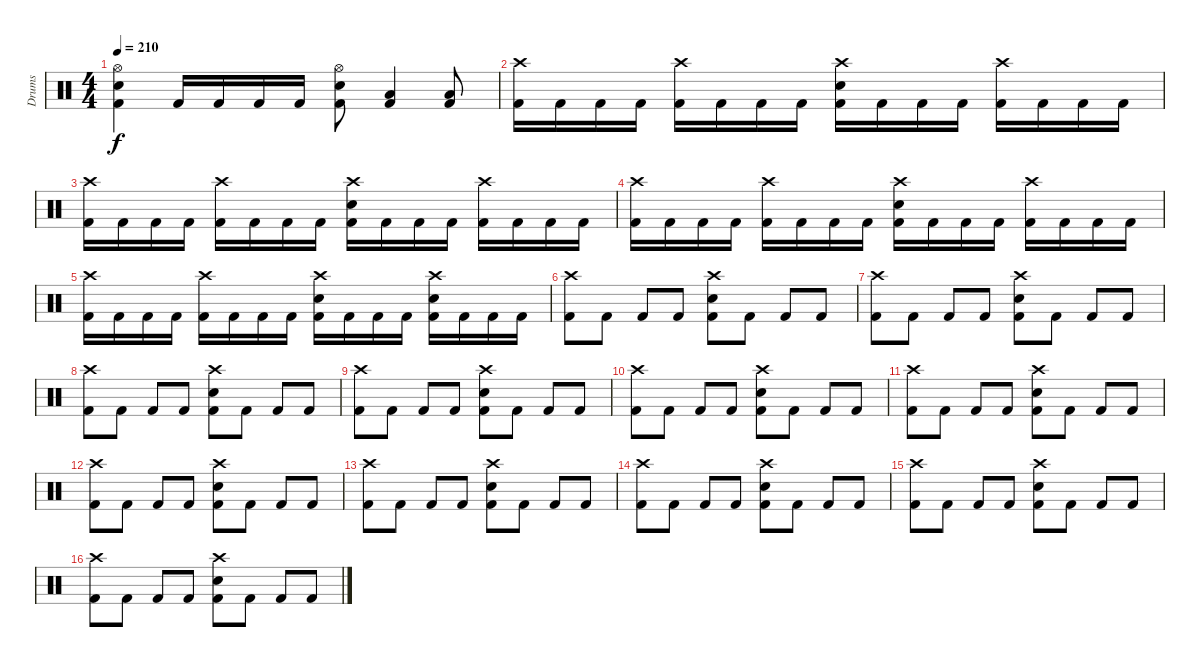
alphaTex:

\track ("Drums" "Drums") {instrument percussion}
\staff {score}
\articulation defaults
\ts (4 4)
\tempo 210
\clef neutral
\ks c
("Hi-Hat (open)" "Electric Snare (hit)" "Kick (hit) 2").4{dy f} "Kick (hit) 2".16 "Kick (hit) 2".16 "Kick (hit) 2".16 "Kick (hit) 2".16 ("Hi-Hat (open)" "Electric Snare (hit)" "Kick (hit) 2").8 ("Low Floor Tom (hit)" "Kick (hit) 2").4 ("Low Floor Tom (hit)" "Kick (hit) 2").8 |
("Crash high (hit)" "Kick (hit) 2").16 "Kick (hit) 2".16 "Kick (hit) 2".16 "Kick (hit) 2".16 ("Crash high (hit)" "Kick (hit) 2").16 "Kick (hit) 2".16 "Kick (hit) 2".16 "Kick (hit) 2".16 ("Crash high (hit)" "Electric Snare (hit)" "Kick (hit) 2").16 "Kick (hit) 2".16 "Kick (hit) 2".16 "Kick (hit) 2".16 ("Crash high (hit)" "Kick (hit) 2").16 "Kick (hit) 2".16 "Kick (hit) 2".16 "Kick (hit) 2".16 |
("Crash high (hit)" "Kick (hit) 2").16 "Kick (hit) 2".16 "Kick (hit) 2".16 "Kick (hit) 2".16 ("Crash high (hit)" "Kick (hit) 2").16 "Kick (hit) 2".16 "Kick (hit) 2".16 "Kick (hit) 2".16 ("Crash high (hit)" "Electric Snare (hit)" "Kick (hit) 2").16 "Kick (hit) 2".16 "Kick (hit) 2".16 "Kick (hit) 2".16 ("Crash high (hit)" "Kick (hit) 2").16 "Kick (hit) 2".16 "Kick (hit) 2".16 "Kick (hit) 2".16 |
("Crash high (hit)" "Kick (hit) 2").16 "Kick (hit) 2".16 "Kick (hit) 2".16 "Kick (hit) 2".16 ("Crash high (hit)" "Kick (hit) 2").16 "Kick (hit) 2".16 "Kick (hit) 2".16 "Kick (hit) 2".16 ("Crash high (hit)" "Electric Snare (hit)" "Kick (hit) 2").16 "Kick (hit) 2".16 "Kick (hit) 2".16 "Kick (hit) 2".16 ("Crash high (hit)" "Kick (hit) 2").16 "Kick (hit) 2".16 "Kick (hit) 2".16 "Kick (hit) 2".16 |
("Crash high (hit)" "Kick (hit) 2").16 "Kick (hit) 2".16 "Kick (hit) 2".16 "Kick (hit) 2".16 ("Crash high (hit)" "Kick (hit) 2").16 "Kick (hit) 2".16 "Kick (hit) 2".16 "Kick (hit) 2".16 ("Crash high (hit)" "Electric Snare (hit)" "Kick (hit) 2").16 "Kick (hit) 2".16 "Kick (hit) 2".16 "Kick (hit) 2".16 ("Crash high (hit)" "Electric Snare (hit)" "Kick (hit) 2").16 "Kick (hit) 2".16 "Kick (hit) 2".16 "Kick (hit) 2".16 |
("Crash high (hit)" "Kick (hit) 2").8 "Kick (hit) 2".8 "Kick (hit) 2".8 "Kick (hit) 2".8 ("Crash high (hit)" "Electric Snare (hit)" "Kick (hit) 2").8 "Kick (hit) 2".8 "Kick (hit) 2".8 "Kick (hit) 2".8 |
("Crash high (hit)" "Kick (hit) 2").8 "Kick (hit) 2".8 "Kick (hit) 2".8 "Kick (hit) 2".8 ("Crash high (hit)" "Electric Snare (hit)" "Kick (hit) 2").8 "Kick (hit) 2".8 "Kick (hit) 2".8 "Kick (hit) 2".8 |
("Crash high (hit)" "Kick (hit) 2").8 "Kick (hit) 2".8 "Kick (hit) 2".8 "Kick (hit) 2".8 ("Crash high (hit)" "Electric Snare (hit)" "Kick (hit) 2").8 "Kick (hit) 2".8 "Kick (hit) 2".8 "Kick (hit) 2".8 |
("Crash high (hit)" "Kick (hit) 2").8 "Kick (hit) 2".8 "Kick (hit) 2".8 "Kick (hit) 2".8 ("Crash high (hit)" "Electric Snare (hit)" "Kick (hit) 2").8 "Kick (hit) 2".8 "Kick (hit) 2".8 "Kick (hit) 2".8 |
("Crash high (hit)" "Kick (hit) 2").8 "Kick (hit) 2".8 "Kick (hit) 2".8 "Kick (hit) 2".8 ("Crash high (hit)" "Electric Snare (hit)" "Kick (hit) 2").8 "Kick (hit) 2".8 "Kick (hit) 2".8 "Kick (hit) 2".8 |
("Crash high (hit)" "Kick (hit) 2").8 "Kick (hit) 2".8 "Kick (hit) 2".8 "Kick (hit) 2".8 ("Crash high (hit)" "Electric Snare (hit)" "Kick (hit) 2").8 "Kick (hit) 2".8 "Kick (hit) 2".8 "Kick (hit) 2".8 |
("Crash high (hit)" "Kick (hit) 2").8 "Kick (hit) 2".8 "Kick (hit) 2".8 "Kick (hit) 2".8 ("Crash high (hit)" "Electric Snare (hit)" "Kick (hit) 2").8 "Kick (hit) 2".8 "Kick (hit) 2".8 "Kick (hit) 2".8 |
("Crash high (hit)" "Kick (hit) 2").8 "Kick (hit) 2".8 "Kick (hit) 2".8 "Kick (hit) 2".8 ("Crash high (hit)" "Electric Snare (hit)" "Kick (hit) 2").8 "Kick (hit) 2".8 "Kick (hit) 2".8 "Kick (hit) 2".8 |
("Crash high (hit)" "Kick (hit) 2").8 "Kick (hit) 2".8 "Kick (hit) 2".8 "Kick (hit) 2".8 ("Crash high (hit)" "Electric Snare (hit)" "Kick (hit) 2").8 "Kick (hit) 2".8 "Kick (hit) 2".8 "Kick (hit) 2".8 |
("Crash high (hit)" "Kick (hit) 2").8 "Kick (hit) 2".8 "Kick (hit) 2".8 "Kick (hit) 2".8 ("Crash high (hit)" "Electric Snare (hit)" "Kick (hit) 2").8 "Kick (hit) 2".8 "Kick (hit) 2".8 "Kick (hit) 2".8 |
("Crash high (hit)" "Kick (hit) 2").8 "Kick (hit) 2".8 "Kick (hit) 2".8 "Kick (hit) 2".8 ("Crash high (hit)" "Electric Snare (hit)" "Kick (hit) 2").8 "Kick (hit) 2".8 "Kick (hit) 2".8 "Kick (hit) 2".8
